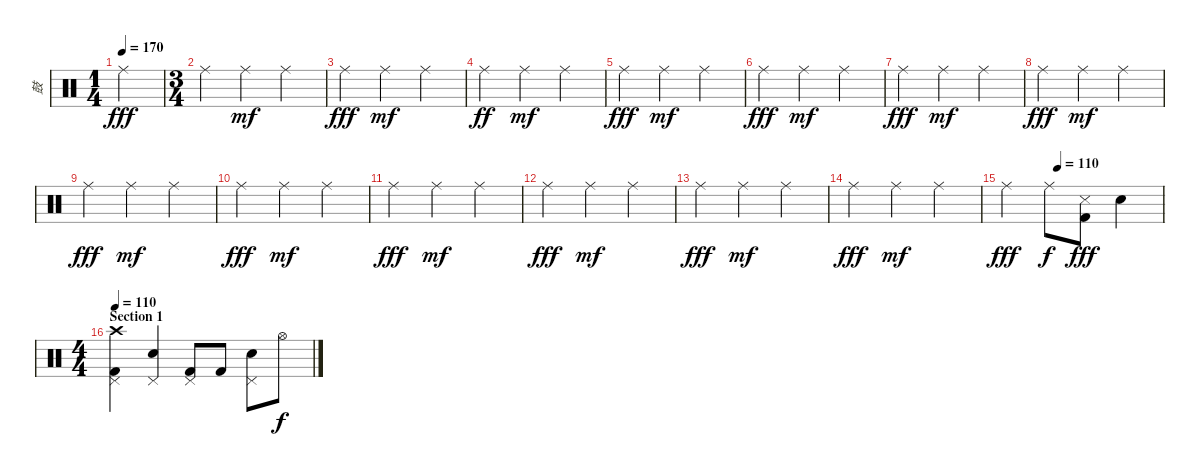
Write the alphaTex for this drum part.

\track ("鼓" "鼓") {instrument percussion}
\staff {score}
\articulation defaults
\ts (1 4)
\tempo 170
\clef neutral
\ks c "Ride (middle)".4{dy fff}
|
\ts (3 4)
"Ride (middle)".4 "Ride (middle)".4{dy mf} "Ride (middle)".4 |
"Ride (middle)".4{dy fff} "Ride (middle)".4{dy mf} "Ride (middle)".4 |
"Ride (middle)".4{dy ff} "Ride (middle)".4{dy mf} "Ride (middle)".4 |
"Ride (middle)".4{dy fff} "Ride (middle)".4{dy mf} "Ride (middle)".4 |
"Ride (middle)".4{dy fff} "Ride (middle)".4{dy mf} "Ride (middle)".4 |
"Ride (middle)".4{dy fff} "Ride (middle)".4{dy mf} "Ride (middle)".4 |
"Ride (middle)".4{dy fff} "Ride (middle)".4{dy mf} "Ride (middle)".4 |
"Ride (middle)".4{dy fff} "Ride (middle)".4{dy mf} "Ride (middle)".4 |
"Ride (middle)".4{dy fff} "Ride (middle)".4{dy mf} "Ride (middle)".4 |
"Ride (middle)".4{dy fff} "Ride (middle)".4{dy mf} "Ride (middle)".4 |
"Ride (middle)".4{dy fff} "Ride (middle)".4{dy mf} "Ride (middle)".4 |
"Ride (middle)".4{dy fff} "Ride (middle)".4{dy mf} "Ride (middle)".4 |
"Ride (middle)".4{dy fff} "Ride (middle)".4{dy mf} "Ride (middle)".4 |
\tempo (110 0.3333333333333333)
"Ride (middle)".4{dy fff} "Ride (middle)".8{dy f} ("Snare (side stick) 3" "Kick (hit) 2").8{dy fff} "Electric Snare (hit)".4 |
\ts (4 4)
\section ("" "Section 1")
\tempo 110
("Pedal Hi-Hat (hit)" "Crash high (hit)" "Kick (hit) 2").4 ("Pedal Hi-Hat (hit)" "Electric Snare (hit)").4 ("Pedal Hi-Hat (hit)" "Kick (hit) 2").8 "Kick (hit) 2".8 ("Pedal Hi-Hat (hit)" "Electric Snare (hit)").8 "Hi-Hat (open)".8{dy f}
